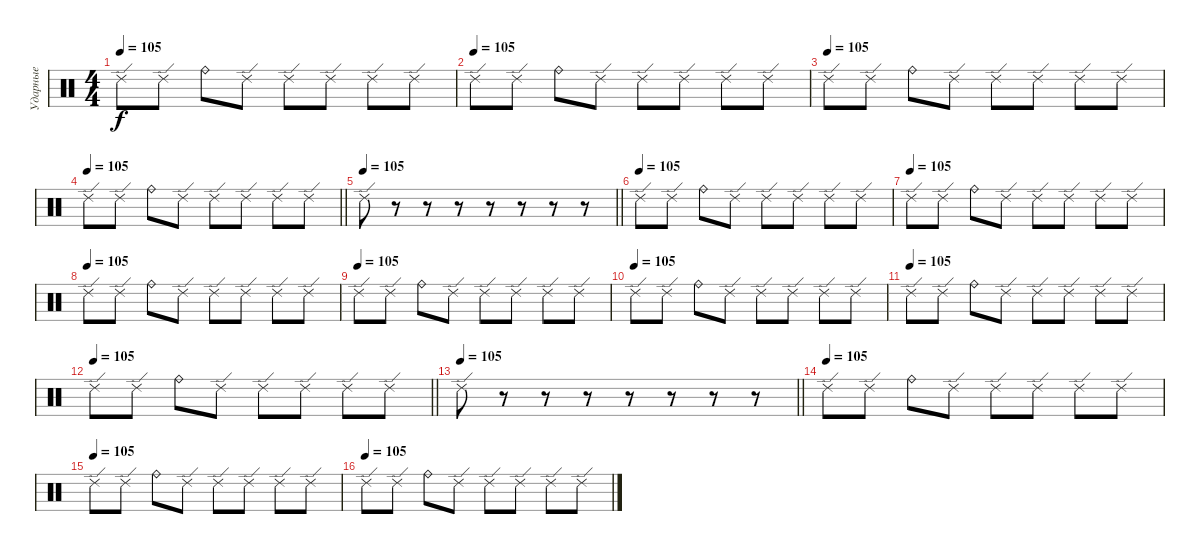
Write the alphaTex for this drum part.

\track ("Ударные" "Ударные") {instrument percussion}
\staff {score}
\articulation defaults
\ts (4 4)
\tempo 105
\clef neutral
\ks c "Ride (edge) 2".8{dy f} "Ride (edge) 2".8 "Ride (bell)".8 "Ride (edge) 2".8 "Ride (edge) 2".8 "Ride (edge) 2".8 "Ride (edge) 2".8 "Ride (edge) 2".8
|
\tempo (105)
"Ride (edge) 2".8 "Ride (edge) 2".8 "Ride (bell)".8 "Ride (edge) 2".8 "Ride (edge) 2".8 "Ride (edge) 2".8 "Ride (edge) 2".8 "Ride (edge) 2".8 |
\tempo (105)
"Ride (edge) 2".8 "Ride (edge) 2".8 "Ride (bell)".8 "Ride (edge) 2".8 "Ride (edge) 2".8 "Ride (edge) 2".8 "Ride (edge) 2".8 "Ride (edge) 2".8 |
\tempo 105
\barLineRight lightlight "Ride (edge) 2".8 "Ride (edge) 2".8 "Ride (bell)".8 "Ride (edge) 2".8 "Ride (edge) 2".8 "Ride (edge) 2".8 "Ride (edge) 2".8 "Ride (edge) 2".8
|
\tempo 105
\barLineRight lightlight "Ride (edge) 2".8
r.8 r.8 r.8 r.8 r.8 r.8 r.8 |
\tempo (105)
"Ride (edge) 2".8 "Ride (edge) 2".8 "Ride (bell)".8 "Ride (edge) 2".8 "Ride (edge) 2".8 "Ride (edge) 2".8 "Ride (edge) 2".8 "Ride (edge) 2".8 |
\tempo (105)
"Ride (edge) 2".8 "Ride (edge) 2".8 "Ride (bell)".8 "Ride (edge) 2".8 "Ride (edge) 2".8 "Ride (edge) 2".8 "Ride (edge) 2".8 "Ride (edge) 2".8 |
\tempo (105)
"Ride (edge) 2".8 "Ride (edge) 2".8 "Ride (bell)".8 "Ride (edge) 2".8 "Ride (edge) 2".8 "Ride (edge) 2".8 "Ride (edge) 2".8 "Ride (edge) 2".8 |
\tempo (105)
"Ride (edge) 2".8 "Ride (edge) 2".8 "Ride (bell)".8 "Ride (edge) 2".8 "Ride (edge) 2".8 "Ride (edge) 2".8 "Ride (edge) 2".8 "Ride (edge) 2".8 |
\tempo (105)
"Ride (edge) 2".8 "Ride (edge) 2".8 "Ride (bell)".8 "Ride (edge) 2".8 "Ride (edge) 2".8 "Ride (edge) 2".8 "Ride (edge) 2".8 "Ride (edge) 2".8 |
\tempo (105)
"Ride (edge) 2".8 "Ride (edge) 2".8 "Ride (bell)".8 "Ride (edge) 2".8 "Ride (edge) 2".8 "Ride (edge) 2".8 "Ride (edge) 2".8 "Ride (edge) 2".8 |
\tempo 105
\barLineRight lightlight "Ride (edge) 2".8 "Ride (edge) 2".8 "Ride (bell)".8 "Ride (edge) 2".8 "Ride (edge) 2".8 "Ride (edge) 2".8 "Ride (edge) 2".8 "Ride (edge) 2".8
|
\tempo 105
\barLineRight lightlight "Ride (edge) 2".8
r.8 r.8 r.8 r.8 r.8 r.8 r.8 |
\tempo (105)
"Ride (edge) 2".8 "Ride (edge) 2".8 "Ride (bell)".8 "Ride (edge) 2".8 "Ride (edge) 2".8 "Ride (edge) 2".8 "Ride (edge) 2".8 "Ride (edge) 2".8 |
\tempo (105)
"Ride (edge) 2".8 "Ride (edge) 2".8 "Ride (bell)".8 "Ride (edge) 2".8 "Ride (edge) 2".8 "Ride (edge) 2".8 "Ride (edge) 2".8 "Ride (edge) 2".8 |
\tempo (105)
"Ride (edge) 2".8 "Ride (edge) 2".8 "Ride (bell)".8 "Ride (edge) 2".8 "Ride (edge) 2".8 "Ride (edge) 2".8 "Ride (edge) 2".8 "Ride (edge) 2".8
